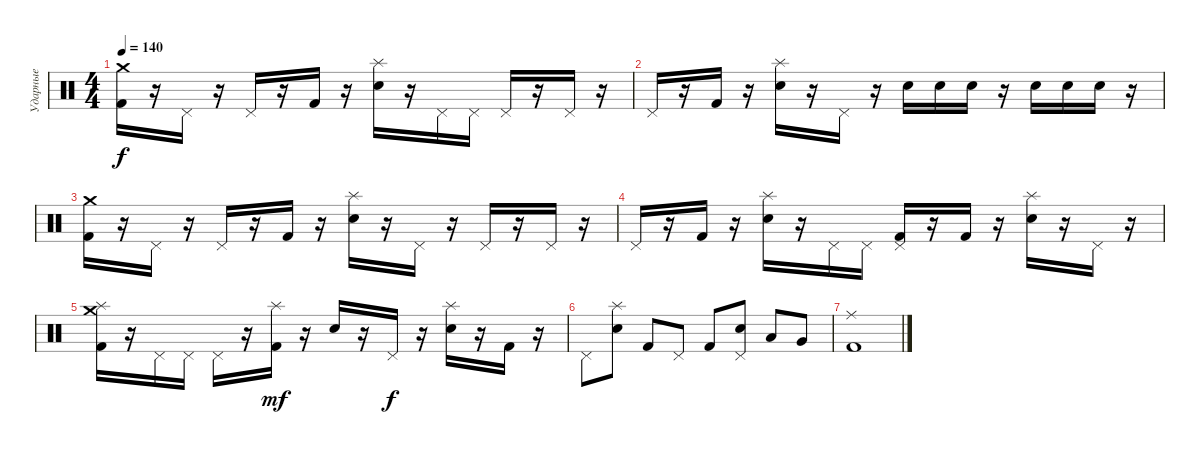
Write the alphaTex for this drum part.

\track ("Ударные" "Ударные") {instrument percussion}
\staff {score}
\articulation defaults
\ts (4 4)
\tempo 140
\clef neutral
\ks c
("Crash medium (hit)" "Kick (hit) 2").16{dy f} r.16 "Pedal Hi-Hat (hit)".16 r.16 "Pedal Hi-Hat (hit)".16 r.16 "Kick (hit) 2".16 r.16 ("Splash (hit)" "Snare (hit) 2").16 r.16 "Pedal Hi-Hat (hit)".16 "Pedal Hi-Hat (hit)".16 "Pedal Hi-Hat (hit)".16 r.16 "Pedal Hi-Hat (hit)".16 r.16 |
"Pedal Hi-Hat (hit)".16 r.16 "Kick (hit) 2".16 r.16 ("Splash (hit)" "Snare (hit) 2").16 r.16 "Pedal Hi-Hat (hit)".16 r.16 "Snare (hit) 2".16 "Snare (hit) 2".16 "Snare (hit) 2".16 r.16 "Snare (hit) 2".16 "Snare (hit) 2".16 "Snare (hit) 2".16 r.16 |
("Crash medium (hit)" "Kick (hit) 2").16 r.16 "Pedal Hi-Hat (hit)".16 r.16 "Pedal Hi-Hat (hit)".16 r.16 "Kick (hit) 2".16 r.16 ("Splash (hit)" "Snare (hit) 2").16 r.16 "Pedal Hi-Hat (hit)".16 r.16 "Pedal Hi-Hat (hit)".16 r.16 "Pedal Hi-Hat (hit)".16 r.16 |
"Pedal Hi-Hat (hit)".16 r.16 "Kick (hit) 2".16 r.16 ("Splash (hit)" "Snare (hit) 2").16 r.16 "Pedal Hi-Hat (hit)".16 "Pedal Hi-Hat (hit)".16 ("Pedal Hi-Hat (hit)" "Kick (hit) 2").16 r.16 "Kick (hit) 2".16 r.16 ("Splash (hit)" "Snare (hit) 2").16 r.16 "Pedal Hi-Hat (hit)".16 r.16 |
("Crash medium (hit)" "Splash (hit)" "Kick (hit) 2").16 r.16 "Pedal Hi-Hat (hit)".16 "Pedal Hi-Hat (hit)".16 "Pedal Hi-Hat (hit)".16 r.16 ("Splash (hit)" "Kick (hit) 2").16{dy mf} r.16 "Snare (hit) 2".16 r.16 "Pedal Hi-Hat (hit)".16{dy f} r.16 ("Splash (hit)" "Snare (hit) 2").16 r.16 "Kick (hit) 2".16 r.16 |
"Pedal Hi-Hat (hit)".8 ("Splash (hit)" "Snare (hit) 2").8 "Kick (hit) 2".8 "Pedal Hi-Hat (hit)".8 "Kick (hit) 2".8 ("Pedal Hi-Hat (hit)" "Snare (hit) 2").8 "Low Tom (hit)".8 "Very Low Tom (hit)".8 |
("Ride (middle)" "Kick (hit) 2").1
